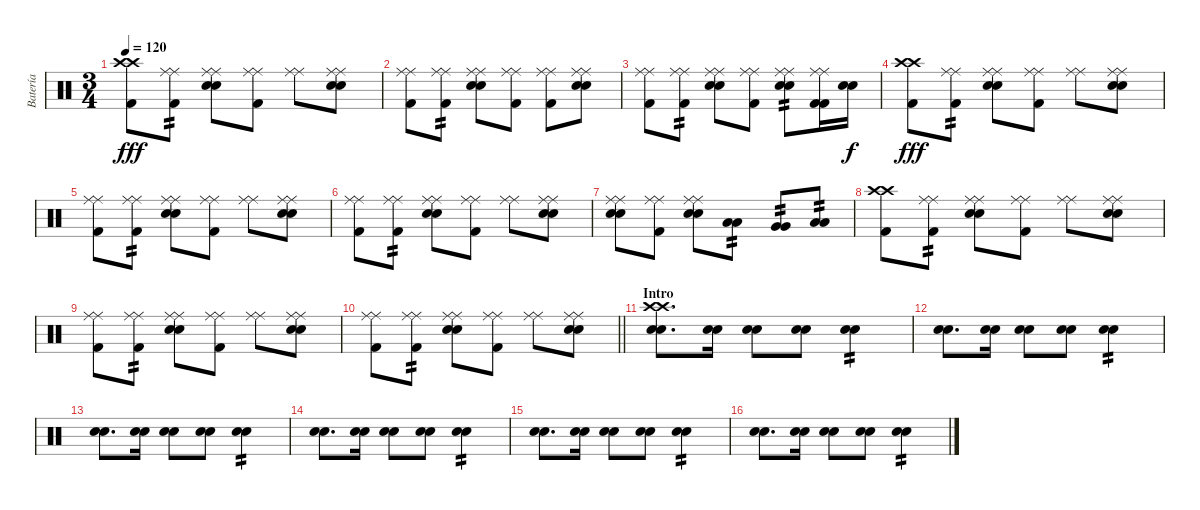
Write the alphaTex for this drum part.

\track ("Batería" "Batería") {instrument percussion}
\staff {score}
\articulation defaults
\ts (3 4)
\tempo 120
\clef neutral
\ks c
("Crash high (hit)" "Crash high (hit)" "Kick (hit) 2").8{dy fff} ("Ride (middle)" "Ride (middle)" "Kick (hit) 2").8{tp 2} ("Ride (middle)" "Ride (middle)" "Electric Snare (hit)" "Electric Snare (hit)").8 ("Ride (middle)" "Ride (middle)" "Kick (hit) 2").8 ("Ride (middle)" "Ride (middle)").8 ("Ride (middle)" "Ride (middle)" "Electric Snare (hit)" "Electric Snare (hit)").8 |
("Ride (middle)" "Ride (middle)" "Kick (hit) 2").8 ("Ride (middle)" "Ride (middle)" "Kick (hit) 2").8{tp 2} ("Ride (middle)" "Ride (middle)" "Electric Snare (hit)" "Electric Snare (hit)").8 ("Ride (middle)" "Ride (middle)" "Kick (hit) 2").8 ("Ride (middle)" "Ride (middle)" "Kick (hit) 2").8 ("Ride (middle)" "Ride (middle)" "Electric Snare (hit)" "Electric Snare (hit)").8 |
("Ride (middle)" "Ride (middle)" "Kick (hit) 2").8 ("Ride (middle)" "Ride (middle)" "Kick (hit) 2").8{tp 2} ("Ride (middle)" "Ride (middle)" "Electric Snare (hit)" "Electric Snare (hit)").8 ("Ride (middle)" "Ride (middle)" "Kick (hit) 2").8 ("Ride (middle)" "Ride (middle)" "Electric Snare (hit)" "Electric Snare (hit)").8{tp 2} ("Ride (middle)" "Ride (middle)" "Kick (hit) 2" "Kick (hit) 2").16 ("Electric Snare (hit)" "Electric Snare (hit)").16{dy f} |
("Crash high (hit)" "Crash high (hit)" "Kick (hit) 2").8{dy fff} ("Ride (middle)" "Ride (middle)" "Kick (hit) 2").8{tp 2} ("Ride (middle)" "Ride (middle)" "Electric Snare (hit)" "Electric Snare (hit)").8 ("Ride (middle)" "Ride (middle)" "Kick (hit) 2").8 ("Ride (middle)" "Ride (middle)").8 ("Ride (middle)" "Ride (middle)" "Electric Snare (hit)" "Electric Snare (hit)").8 |
("Ride (middle)" "Ride (middle)" "Kick (hit) 2").8 ("Ride (middle)" "Ride (middle)" "Kick (hit) 2").8{tp 2} ("Ride (middle)" "Ride (middle)" "Electric Snare (hit)" "Electric Snare (hit)").8 ("Ride (middle)" "Ride (middle)" "Kick (hit) 2").8 ("Ride (middle)" "Ride (middle)").8 ("Ride (middle)" "Ride (middle)" "Electric Snare (hit)" "Electric Snare (hit)").8 |
("Ride (middle)" "Ride (middle)" "Kick (hit) 2").8 ("Ride (middle)" "Ride (middle)" "Kick (hit) 2").8{tp 2} ("Ride (middle)" "Ride (middle)" "Electric Snare (hit)" "Electric Snare (hit)").8 ("Ride (middle)" "Ride (middle)" "Kick (hit) 2").8 ("Ride (middle)" "Ride (middle)").8 ("Ride (middle)" "Ride (middle)" "Electric Snare (hit)" "Electric Snare (hit)").8 |
("Ride (middle)" "Ride (middle)" "Electric Snare (hit)" "Electric Snare (hit)").8 ("Ride (middle)" "Ride (middle)" "Kick (hit) 2").8 ("Ride (middle)" "Ride (middle)" "Electric Snare (hit)" "Electric Snare (hit)").8 ("Low Tom (hit)" "Low Tom (hit)").8{tp 2} ("Very Low Tom (hit)" "Very Low Tom (hit)").8{tp 2} ("Low Floor Tom (hit)" "Low Floor Tom (hit)").8{tp 2} |
("Crash high (hit)" "Crash high (hit)" "Kick (hit) 2").8 ("Ride (middle)" "Ride (middle)" "Kick (hit) 2").8{tp 2} ("Ride (middle)" "Ride (middle)" "Electric Snare (hit)" "Electric Snare (hit)").8 ("Ride (middle)" "Ride (middle)" "Kick (hit) 2").8 ("Ride (middle)" "Ride (middle)").8 ("Ride (middle)" "Ride (middle)" "Electric Snare (hit)" "Electric Snare (hit)").8 |
("Ride (middle)" "Ride (middle)" "Kick (hit) 2").8 ("Ride (middle)" "Ride (middle)" "Kick (hit) 2").8{tp 2} ("Ride (middle)" "Ride (middle)" "Electric Snare (hit)" "Electric Snare (hit)").8 ("Ride (middle)" "Ride (middle)" "Kick (hit) 2").8 ("Ride (middle)" "Ride (middle)").8 ("Ride (middle)" "Ride (middle)" "Electric Snare (hit)" "Electric Snare (hit)").8 |
\barLineRight lightlight
("Ride (middle)" "Ride (middle)" "Kick (hit) 2").8 ("Ride (middle)" "Ride (middle)" "Kick (hit) 2").8{tp 2} ("Ride (middle)" "Ride (middle)" "Electric Snare (hit)" "Electric Snare (hit)").8 ("Ride (middle)" "Ride (middle)" "Kick (hit) 2").8 ("Ride (middle)" "Ride (middle)").8 ("Ride (middle)" "Ride (middle)" "Electric Snare (hit)" "Electric Snare (hit)").8 |
\section ("" "Intro")
("Crash high (hit)" "Crash high (hit)" "Electric Snare (hit)" "Electric Snare (hit)").8{d} ("Electric Snare (hit)" "Electric Snare (hit)").16 ("Electric Snare (hit)" "Electric Snare (hit)").8 ("Electric Snare (hit)" "Electric Snare (hit)").8 ("Electric Snare (hit)" "Electric Snare (hit)").4{tp 2} |
("Electric Snare (hit)" "Electric Snare (hit)").8{d} ("Electric Snare (hit)" "Electric Snare (hit)").16 ("Electric Snare (hit)" "Electric Snare (hit)").8 ("Electric Snare (hit)" "Electric Snare (hit)").8 ("Electric Snare (hit)" "Electric Snare (hit)").4{tp 2} |
("Electric Snare (hit)" "Electric Snare (hit)").8{d} ("Electric Snare (hit)" "Electric Snare (hit)").16 ("Electric Snare (hit)" "Electric Snare (hit)").8 ("Electric Snare (hit)" "Electric Snare (hit)").8 ("Electric Snare (hit)" "Electric Snare (hit)").4{tp 2} |
("Electric Snare (hit)" "Electric Snare (hit)").8{d} ("Electric Snare (hit)" "Electric Snare (hit)").16 ("Electric Snare (hit)" "Electric Snare (hit)").8 ("Electric Snare (hit)" "Electric Snare (hit)").8 ("Electric Snare (hit)" "Electric Snare (hit)").4{tp 2} |
("Electric Snare (hit)" "Electric Snare (hit)").8{d} ("Electric Snare (hit)" "Electric Snare (hit)").16 ("Electric Snare (hit)" "Electric Snare (hit)").8 ("Electric Snare (hit)" "Electric Snare (hit)").8 ("Electric Snare (hit)" "Electric Snare (hit)").4{tp 2} |
("Electric Snare (hit)" "Electric Snare (hit)").8{d} ("Electric Snare (hit)" "Electric Snare (hit)").16 ("Electric Snare (hit)" "Electric Snare (hit)").8 ("Electric Snare (hit)" "Electric Snare (hit)").8 ("Electric Snare (hit)" "Electric Snare (hit)").4{tp 2}
